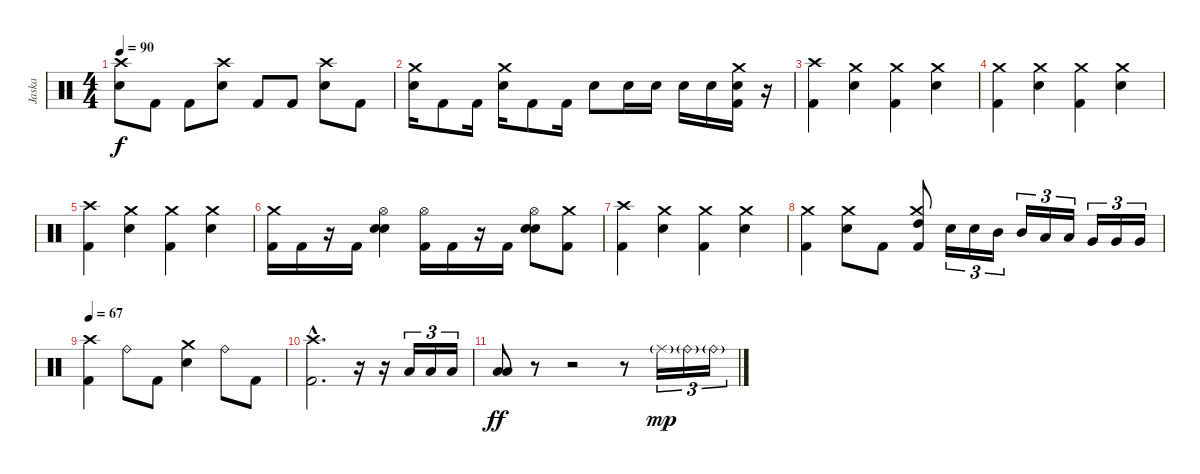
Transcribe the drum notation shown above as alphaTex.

\track ("Jaska" "Jaska") {instrument percussion}
\staff {score}
\articulation defaults
\ts (4 4)
\tempo 90
\clef neutral
\ks c
("Crash high (hit)" "Snare (hit) 2").8{dy f} "Kick (hit) 2".8 "Kick (hit) 2".8 ("Crash high (hit)" "Snare (hit) 2").8 "Kick (hit) 2".8 "Kick (hit) 2".8 ("Crash high (hit)" "Snare (hit) 2").8 "Kick (hit) 2".8 |
("Crash medium (hit)" "Snare (hit) 2").16 "Kick (hit) 2".8 "Kick (hit) 2".16 ("Crash medium (hit)" "Snare (hit) 2").16 "Kick (hit) 2".8 "Kick (hit) 2".16 "Snare (hit) 2".8 "Snare (hit) 2".16 "Snare (hit) 2".16 "Snare (hit) 2".16 "Snare (hit) 2".16 ("Crash medium (hit)" "Snare (hit) 2" "Kick (hit) 2").16 r.16 |
("Crash high (hit)" "Kick (hit) 2").4 ("Crash medium (hit)" "Snare (hit) 2").4 ("Crash medium (hit)" "Kick (hit) 2").4 ("Crash medium (hit)" "Snare (hit) 2").4 |
("Crash medium (hit)" "Kick (hit) 2").4 ("Crash medium (hit)" "Snare (hit) 2").4 ("Crash medium (hit)" "Kick (hit) 2").4 ("Crash medium (hit)" "Snare (hit) 2").4 |
("Crash high (hit)" "Kick (hit) 2").4 ("Crash medium (hit)" "Snare (hit) 2").4 ("Crash medium (hit)" "Kick (hit) 2").4 ("Crash medium (hit)" "Snare (hit) 2").4 |
("Crash medium (hit)" "Kick (hit) 2").16 "Kick (hit) 2".16 r.16 "Kick (hit) 2".16 ("Hi-Hat (open)" "Snare (hit) 2" "Snare (hit) 2").4 ("Hi-Hat (open)" "Kick (hit) 2").16 "Kick (hit) 2".16 r.16 "Kick (hit) 2".16 ("Hi-Hat (open)" "Snare (hit) 2" "Snare (hit) 2").8 ("Crash medium (hit)" "Kick (hit) 2").8 |
("Crash high (hit)" "Kick (hit) 2").4 ("Crash medium (hit)" "Snare (hit) 2").4 ("Crash medium (hit)" "Kick (hit) 2").4 ("Crash medium (hit)" "Snare (hit) 2").4 |
("Crash medium (hit)" "Kick (hit) 2").4 ("Crash medium (hit)" "Snare (hit) 2").8 "Kick (hit) 2".8 ("Crash medium (hit)" "High Tom (hit)" "Kick (hit) 2").8 "Snare (hit) 2".16{tu (3 2)} "Snare (hit) 2".16{tu (3 2)} "Mid Tom (hit)".16{tu (3 2)} "Mid Tom (hit)".16{tu (3 2)} "Low Tom (hit)".16{tu (3 2)} "Low Tom (hit)".16{tu (3 2)} "Very Low Tom (hit)".16{tu (3 2)} "Very Low Tom (hit)".16{tu (3 2)} "Very Low Tom (hit)".16{tu (3 2)} |
\tempo 67
("Crash high (hit)" "Kick (hit) 2").4 "Ride (bell)".8 "Kick (hit) 2".8 ("Crash medium (hit)" "Snare (hit) 2").4 "Ride (bell)".8 "Kick (hit) 2".8 |
("Crash high (hit)"{hac} "Kick (hit) 2"{hac}).2{d} r.16 r.16 "Low Tom (hit)".16{tu (3 2)} "Low Tom (hit)".16{tu (3 2)} "Low Tom (hit)".16{tu (3 2)} |
("Low Tom (hit)" "Low Tom (hit)").8{dy ff} r.8 r.2 r.8 "Ride (middle)"{g}.16{tu (3 2) dy mp} "Ride (bell)"{g}.16{tu (3 2)} "Ride (bell)"{g}.16{tu (3 2)}
